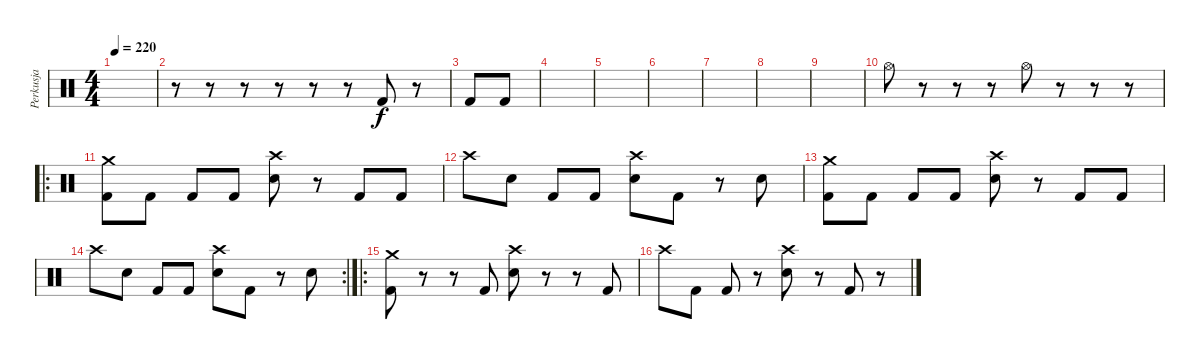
\track ("Perkusja" "Perkusja") {instrument percussion}
\staff {score}
\articulation defaults
\ts (4 4)
\tempo 220
\clef neutral
\ks c
|
r.8 r.8 r.8 r.8 r.8 r.8 "Kick (hit) 2".8 r.8 |
"Kick (hit) 2".8 "Kick (hit) 2".8 |
|
|
|
|
|
|
"Hi-Hat (open)".8 r.8 r.8 r.8 "Hi-Hat (open)".8 r.8 r.8 r.8 |
\ro
("Crash medium (hit)" "Kick (hit) 2").8 "Kick (hit) 2".8 "Kick (hit) 2".8 "Kick (hit) 2".8 ("Crash high (hit)" "Snare (hit) 2").8 r.8 "Kick (hit) 2".8 "Kick (hit) 2".8 |
"Crash high (hit)".8 "Snare (hit) 2".8 "Kick (hit) 2".8 "Kick (hit) 2".8 ("Crash high (hit)" "Snare (hit) 2").8 "Kick (hit) 2".8 r.8 "Snare (hit) 2".8 |
("Crash medium (hit)" "Kick (hit) 2").8 "Kick (hit) 2".8 "Kick (hit) 2".8 "Kick (hit) 2".8 ("Crash high (hit)" "Snare (hit) 2").8 r.8 "Kick (hit) 2".8 "Kick (hit) 2".8 |
\rc 2 "Crash high (hit)".8 "Snare (hit) 2".8 "Kick (hit) 2".8 "Kick (hit) 2".8
("Crash high (hit)" "Snare (hit) 2").8 "Kick (hit) 2".8 r.8 "Snare (hit) 2".8 |
\ro
("Crash medium (hit)" "Kick (hit) 2").8 r.8 r.8 "Kick (hit) 2".8 ("Crash high (hit)" "Snare (hit) 2").8 r.8 r.8 "Kick (hit) 2".8 |
"Crash high (hit)".8 "Kick (hit) 2".8 "Kick (hit) 2".8 r.8 ("Crash high (hit)" "Snare (hit) 2").8 r.8 "Kick (hit) 2".8 r.8
